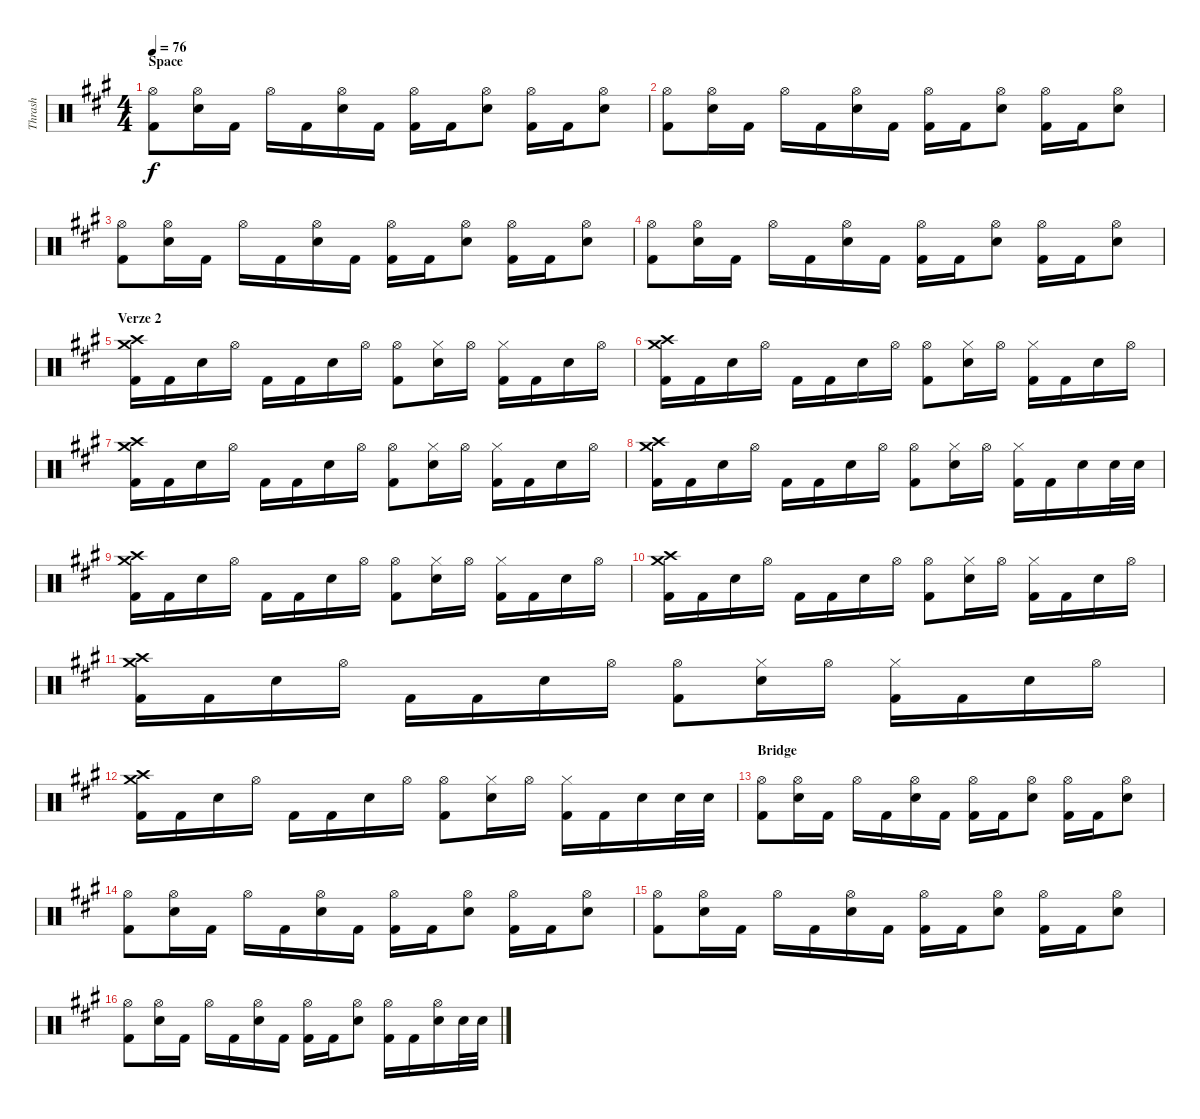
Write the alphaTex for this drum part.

\track ("Thrash" "Thrash") {instrument percussion}
\staff {score}
\articulation defaults
\ts (4 4)
\section ("" "Space")
\tempo 76
\clef neutral
\ks a
("Hi-Hat (open)" "Kick (hit) 2").8{dy f} ("Hi-Hat (open)" "Snare (hit) 2").16 "Kick (hit) 2".16 "Hi-Hat (open)".16 "Kick (hit) 2".16 ("Hi-Hat (open)" "Snare (hit) 2").16 "Kick (hit) 2".16 ("Hi-Hat (open)" "Kick (hit) 2").16 "Kick (hit) 2".16 ("Hi-Hat (open)" "Snare (hit) 2").8 ("Hi-Hat (open)" "Kick (hit) 2").16 "Kick (hit) 2".16 ("Hi-Hat (open)" "Snare (hit) 2").8 |
("Hi-Hat (open)" "Kick (hit) 2").8 ("Hi-Hat (open)" "Snare (hit) 2").16 "Kick (hit) 2".16 "Hi-Hat (open)".16 "Kick (hit) 2".16 ("Hi-Hat (open)" "Snare (hit) 2").16 "Kick (hit) 2".16 ("Hi-Hat (open)" "Kick (hit) 2").16 "Kick (hit) 2".16 ("Hi-Hat (open)" "Snare (hit) 2").8 ("Hi-Hat (open)" "Kick (hit) 2").16 "Kick (hit) 2".16 ("Hi-Hat (open)" "Snare (hit) 2").8 |
("Hi-Hat (open)" "Kick (hit) 2").8 ("Hi-Hat (open)" "Snare (hit) 2").16 "Kick (hit) 2".16 "Hi-Hat (open)".16 "Kick (hit) 2".16 ("Hi-Hat (open)" "Snare (hit) 2").16 "Kick (hit) 2".16 ("Hi-Hat (open)" "Kick (hit) 2").16 "Kick (hit) 2".16 ("Hi-Hat (open)" "Snare (hit) 2").8 ("Hi-Hat (open)" "Kick (hit) 2").16 "Kick (hit) 2".16 ("Hi-Hat (open)" "Snare (hit) 2").8 |
("Hi-Hat (open)" "Kick (hit) 2").8 ("Hi-Hat (open)" "Snare (hit) 2").16 "Kick (hit) 2".16 "Hi-Hat (open)".16 "Kick (hit) 2".16 ("Hi-Hat (open)" "Snare (hit) 2").16 "Kick (hit) 2".16 ("Hi-Hat (open)" "Kick (hit) 2").16 "Kick (hit) 2".16 ("Hi-Hat (open)" "Snare (hit) 2").8 ("Hi-Hat (open)" "Kick (hit) 2").16 "Kick (hit) 2".16 ("Hi-Hat (open)" "Snare (hit) 2").8 |
\section ("" "Verze 2")
("Crash medium (hit)" "Crash high (hit)" "Kick (hit) 2").16 "Kick (hit) 2".16 "Snare (hit) 2".16 "Hi-Hat (open)".16 "Kick (hit) 2".16 "Kick (hit) 2".16 "Snare (hit) 2".16 "Hi-Hat (open)".16 ("Hi-Hat (open)" "Kick (hit) 2").8 ("Hi-Hat (closed)" "Snare (hit) 2").16 "Hi-Hat (open)".16 ("Hi-Hat (closed)" "Kick (hit) 2").16 "Kick (hit) 2".16 "Snare (hit) 2".16 "Hi-Hat (open)".16 |
("Crash medium (hit)" "Crash high (hit)" "Kick (hit) 2").16 "Kick (hit) 2".16 "Snare (hit) 2".16 "Hi-Hat (open)".16 "Kick (hit) 2".16 "Kick (hit) 2".16 "Snare (hit) 2".16 "Hi-Hat (open)".16 ("Hi-Hat (open)" "Kick (hit) 2").8 ("Hi-Hat (closed)" "Snare (hit) 2").16 "Hi-Hat (open)".16 ("Hi-Hat (closed)" "Kick (hit) 2").16 "Kick (hit) 2".16 "Snare (hit) 2".16 "Hi-Hat (open)".16 |
("Crash medium (hit)" "Crash high (hit)" "Kick (hit) 2").16 "Kick (hit) 2".16 "Snare (hit) 2".16 "Hi-Hat (open)".16 "Kick (hit) 2".16 "Kick (hit) 2".16 "Snare (hit) 2".16 "Hi-Hat (open)".16 ("Hi-Hat (open)" "Kick (hit) 2").8 ("Hi-Hat (closed)" "Snare (hit) 2").16 "Hi-Hat (open)".16 ("Hi-Hat (closed)" "Kick (hit) 2").16 "Kick (hit) 2".16 "Snare (hit) 2".16 "Hi-Hat (open)".16 |
("Crash medium (hit)" "Crash high (hit)" "Kick (hit) 2").16 "Kick (hit) 2".16 "Snare (hit) 2".16 "Hi-Hat (open)".16 "Kick (hit) 2".16 "Kick (hit) 2".16 "Snare (hit) 2".16 "Hi-Hat (open)".16 ("Hi-Hat (open)" "Kick (hit) 2").8 ("Hi-Hat (closed)" "Snare (hit) 2").16 "Hi-Hat (open)".16 ("Hi-Hat (closed)" "Kick (hit) 2").16 "Kick (hit) 2".16 "Snare (hit) 2".16 "Snare (hit) 2".32 "Snare (hit) 2".32 |
("Crash medium (hit)" "Crash high (hit)" "Kick (hit) 2").16 "Kick (hit) 2".16 "Snare (hit) 2".16 "Hi-Hat (open)".16 "Kick (hit) 2".16 "Kick (hit) 2".16 "Snare (hit) 2".16 "Hi-Hat (open)".16 ("Hi-Hat (open)" "Kick (hit) 2").8 ("Hi-Hat (closed)" "Snare (hit) 2").16 "Hi-Hat (open)".16 ("Hi-Hat (closed)" "Kick (hit) 2").16 "Kick (hit) 2".16 "Snare (hit) 2".16 "Hi-Hat (open)".16 |
("Crash medium (hit)" "Crash high (hit)" "Kick (hit) 2").16 "Kick (hit) 2".16 "Snare (hit) 2".16 "Hi-Hat (open)".16 "Kick (hit) 2".16 "Kick (hit) 2".16 "Snare (hit) 2".16 "Hi-Hat (open)".16 ("Hi-Hat (open)" "Kick (hit) 2").8 ("Hi-Hat (closed)" "Snare (hit) 2").16 "Hi-Hat (open)".16 ("Hi-Hat (closed)" "Kick (hit) 2").16 "Kick (hit) 2".16 "Snare (hit) 2".16 "Hi-Hat (open)".16 |
("Crash medium (hit)" "Crash high (hit)" "Kick (hit) 2").16 "Kick (hit) 2".16 "Snare (hit) 2".16 "Hi-Hat (open)".16 "Kick (hit) 2".16 "Kick (hit) 2".16 "Snare (hit) 2".16 "Hi-Hat (open)".16 ("Hi-Hat (open)" "Kick (hit) 2").8 ("Hi-Hat (closed)" "Snare (hit) 2").16 "Hi-Hat (open)".16 ("Hi-Hat (closed)" "Kick (hit) 2").16 "Kick (hit) 2".16 "Snare (hit) 2".16 "Hi-Hat (open)".16 |
("Crash medium (hit)" "Crash high (hit)" "Kick (hit) 2").16 "Kick (hit) 2".16 "Snare (hit) 2".16 "Hi-Hat (open)".16 "Kick (hit) 2".16 "Kick (hit) 2".16 "Snare (hit) 2".16 "Hi-Hat (open)".16 ("Hi-Hat (open)" "Kick (hit) 2").8 ("Hi-Hat (closed)" "Snare (hit) 2").16 "Hi-Hat (open)".16 ("Hi-Hat (closed)" "Kick (hit) 2").16 "Kick (hit) 2".16 "Snare (hit) 2".16 "Snare (hit) 2".32 "Snare (hit) 2".32 |
\section ("" "Bridge")
("Hi-Hat (open)" "Kick (hit) 2").8 ("Hi-Hat (open)" "Snare (hit) 2").16 "Kick (hit) 2".16 "Hi-Hat (open)".16 "Kick (hit) 2".16 ("Hi-Hat (open)" "Snare (hit) 2").16 "Kick (hit) 2".16 ("Hi-Hat (open)" "Kick (hit) 2").16 "Kick (hit) 2".16 ("Hi-Hat (open)" "Snare (hit) 2").8 ("Hi-Hat (open)" "Kick (hit) 2").16 "Kick (hit) 2".16 ("Hi-Hat (open)" "Snare (hit) 2").8 |
("Hi-Hat (open)" "Kick (hit) 2").8 ("Hi-Hat (open)" "Snare (hit) 2").16 "Kick (hit) 2".16 "Hi-Hat (open)".16 "Kick (hit) 2".16 ("Hi-Hat (open)" "Snare (hit) 2").16 "Kick (hit) 2".16 ("Hi-Hat (open)" "Kick (hit) 2").16 "Kick (hit) 2".16 ("Hi-Hat (open)" "Snare (hit) 2").8 ("Hi-Hat (open)" "Kick (hit) 2").16 "Kick (hit) 2".16 ("Hi-Hat (open)" "Snare (hit) 2").8 |
("Hi-Hat (open)" "Kick (hit) 2").8 ("Hi-Hat (open)" "Snare (hit) 2").16 "Kick (hit) 2".16 "Hi-Hat (open)".16 "Kick (hit) 2".16 ("Hi-Hat (open)" "Snare (hit) 2").16 "Kick (hit) 2".16 ("Hi-Hat (open)" "Kick (hit) 2").16 "Kick (hit) 2".16 ("Hi-Hat (open)" "Snare (hit) 2").8 ("Hi-Hat (open)" "Kick (hit) 2").16 "Kick (hit) 2".16 ("Hi-Hat (open)" "Snare (hit) 2").8 |
("Hi-Hat (open)" "Kick (hit) 2").8 ("Hi-Hat (open)" "Snare (hit) 2").16 "Kick (hit) 2".16 "Hi-Hat (open)".16 "Kick (hit) 2".16 ("Hi-Hat (open)" "Snare (hit) 2").16 "Kick (hit) 2".16 ("Hi-Hat (open)" "Kick (hit) 2").16 "Kick (hit) 2".16 ("Hi-Hat (open)" "Snare (hit) 2").8 ("Hi-Hat (open)" "Kick (hit) 2").16 "Kick (hit) 2".16 ("Hi-Hat (open)" "Snare (hit) 2").16 "Snare (hit) 2".32 "Snare (hit) 2".32
